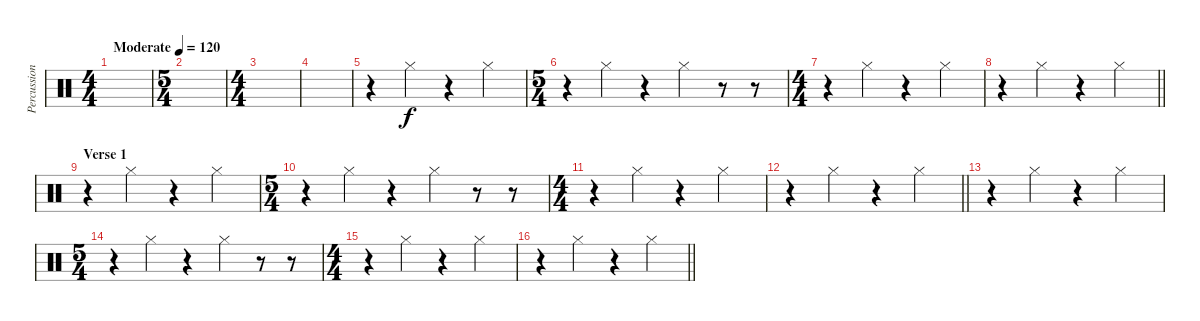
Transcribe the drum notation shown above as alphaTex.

\track ("Percussion" "Percussion") {instrument percussion}
\staff {score}
\articulation defaults
\ts (4 4)
\tempo (120 "Moderate")
\clef neutral
\ks c
|
\ts (5 4)
|
\ts (4 4)
|
|
r.4 "Hi-Hat (closed)".4 r.4 "Hi-Hat (closed)".4 |
\ts (5 4)
r.4 "Hi-Hat (closed)".4 r.4 "Hi-Hat (closed)".4 r.8 r.8 |
\ts (4 4)
r.4 "Hi-Hat (closed)".4 r.4 "Hi-Hat (closed)".4 |
\barLineRight lightlight
r.4 "Hi-Hat (closed)".4 r.4 "Hi-Hat (closed)".4 |
\section ("" "Verse 1")
r.4 "Hi-Hat (closed)".4 r.4 "Hi-Hat (closed)".4 |
\ts (5 4)
r.4 "Hi-Hat (closed)".4 r.4 "Hi-Hat (closed)".4 r.8 r.8 |
\ts (4 4)
r.4 "Hi-Hat (closed)".4 r.4 "Hi-Hat (closed)".4 |
\barLineRight lightlight
r.4 "Hi-Hat (closed)".4 r.4 "Hi-Hat (closed)".4 |
r.4 "Hi-Hat (closed)".4 r.4 "Hi-Hat (closed)".4 |
\ts (5 4)
r.4 "Hi-Hat (closed)".4 r.4 "Hi-Hat (closed)".4 r.8 r.8 |
\ts (4 4)
r.4 "Hi-Hat (closed)".4 r.4 "Hi-Hat (closed)".4 |
\barLineRight lightlight
r.4 "Hi-Hat (closed)".4 r.4 "Hi-Hat (closed)".4
